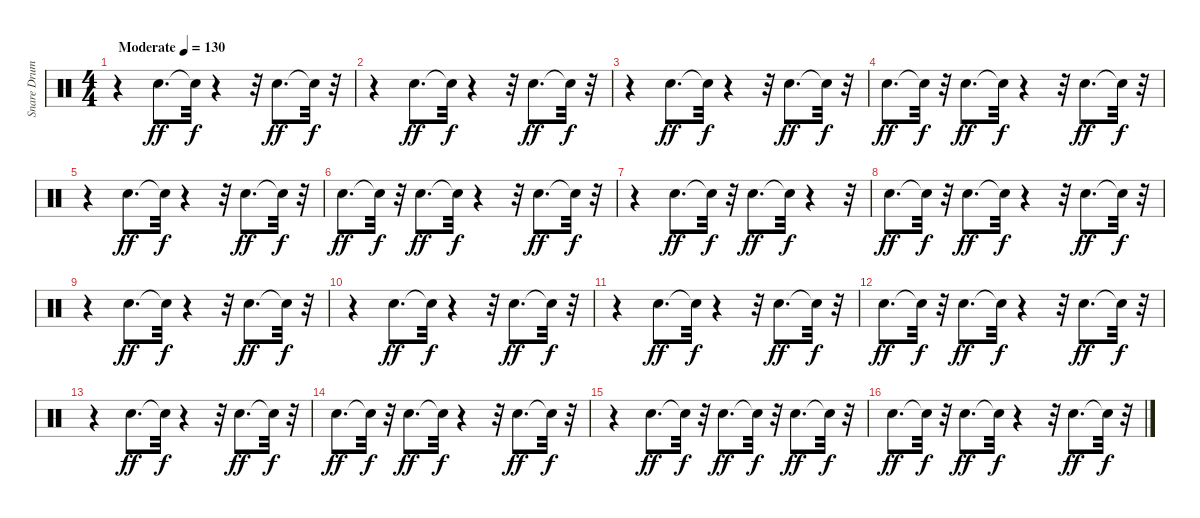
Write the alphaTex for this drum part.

\track ("Snare Drum" "Snare Drum") {instrument percussion}
\staff {score}
\articulation defaults
\ts (4 4)
\tempo (130 "Moderate")
\clef neutral
\ks c
r.4{dy ff} "Snare (hit) 2".8{d} "Snare (hit)"{t}.32{dy f} r.4 r.32 "Snare (hit) 2".8{d dy ff} "Snare (hit)"{t}.32{dy f} r.32 |
r.4 "Snare (hit) 2".8{d dy ff} "Snare (hit)"{t}.32{dy f} r.4 r.32 "Snare (hit) 2".8{d dy ff} "Snare (hit)"{t}.32{dy f} r.32 |
r.4 "Snare (hit) 2".8{d dy ff} "Snare (hit)"{t}.32{dy f} r.4 r.32 "Snare (hit) 2".8{d dy ff} "Snare (hit)"{t}.32{dy f} r.32 |
"Snare (hit) 2".8{d dy ff} "Snare (hit)"{t}.32{dy f} r.32 "Snare (hit) 2".8{d dy ff} "Snare (hit)"{t}.32{dy f} r.4 r.32 "Snare (hit) 2".8{d dy ff} "Snare (hit)"{t}.32{dy f} r.32 |
r.4 "Snare (hit) 2".8{d dy ff} "Snare (hit)"{t}.32{dy f} r.4 r.32 "Snare (hit) 2".8{d dy ff} "Snare (hit)"{t}.32{dy f} r.32 |
"Snare (hit) 2".8{d dy ff} "Snare (hit)"{t}.32{dy f} r.32 "Snare (hit) 2".8{d dy ff} "Snare (hit)"{t}.32{dy f} r.4 r.32 "Snare (hit) 2".8{d dy ff} "Snare (hit)"{t}.32{dy f} r.32 |
r.4 "Snare (hit) 2".8{d dy ff} "Snare (hit)"{t}.32{dy f} r.32 "Snare (hit) 2".8{d dy ff} "Snare (hit)"{t}.32{dy f} r.4 r.32 |
"Snare (hit) 2".8{d dy ff} "Snare (hit)"{t}.32{dy f} r.32 "Snare (hit) 2".8{d dy ff} "Snare (hit)"{t}.32{dy f} r.4 r.32 "Snare (hit) 2".8{d dy ff} "Snare (hit)"{t}.32{dy f} r.32 |
r.4 "Snare (hit) 2".8{d dy ff} "Snare (hit)"{t}.32{dy f} r.4 r.32 "Snare (hit) 2".8{d dy ff} "Snare (hit)"{t}.32{dy f} r.32 |
r.4 "Snare (hit) 2".8{d dy ff} "Snare (hit)"{t}.32{dy f} r.4 r.32 "Snare (hit) 2".8{d dy ff} "Snare (hit)"{t}.32{dy f} r.32 |
r.4 "Snare (hit) 2".8{d dy ff} "Snare (hit)"{t}.32{dy f} r.4 r.32 "Snare (hit) 2".8{d dy ff} "Snare (hit)"{t}.32{dy f} r.32 |
"Snare (hit) 2".8{d dy ff} "Snare (hit)"{t}.32{dy f} r.32 "Snare (hit) 2".8{d dy ff} "Snare (hit)"{t}.32{dy f} r.4 r.32 "Snare (hit) 2".8{d dy ff} "Snare (hit)"{t}.32{dy f} r.32 |
r.4 "Snare (hit) 2".8{d dy ff} "Snare (hit)"{t}.32{dy f} r.4 r.32 "Snare (hit) 2".8{d dy ff} "Snare (hit)"{t}.32{dy f} r.32 |
"Snare (hit) 2".8{d dy ff} "Snare (hit)"{t}.32{dy f} r.32 "Snare (hit) 2".8{d dy ff} "Snare (hit)"{t}.32{dy f} r.4 r.32 "Snare (hit) 2".8{d dy ff} "Snare (hit)"{t}.32{dy f} r.32 |
r.4 "Snare (hit) 2".8{d dy ff} "Snare (hit)"{t}.32{dy f} r.32 "Snare (hit) 2".8{d dy ff} "Snare (hit)"{t}.32{dy f} r.32 "Snare (hit) 2".8{d dy ff} "Snare (hit)"{t}.32{dy f} r.32 |
"Snare (hit) 2".8{d dy ff} "Snare (hit)"{t}.32{dy f} r.32 "Snare (hit) 2".8{d dy ff} "Snare (hit)"{t}.32{dy f} r.4 r.32 "Snare (hit) 2".8{d dy ff} "Snare (hit)"{t}.32{dy f} r.32
